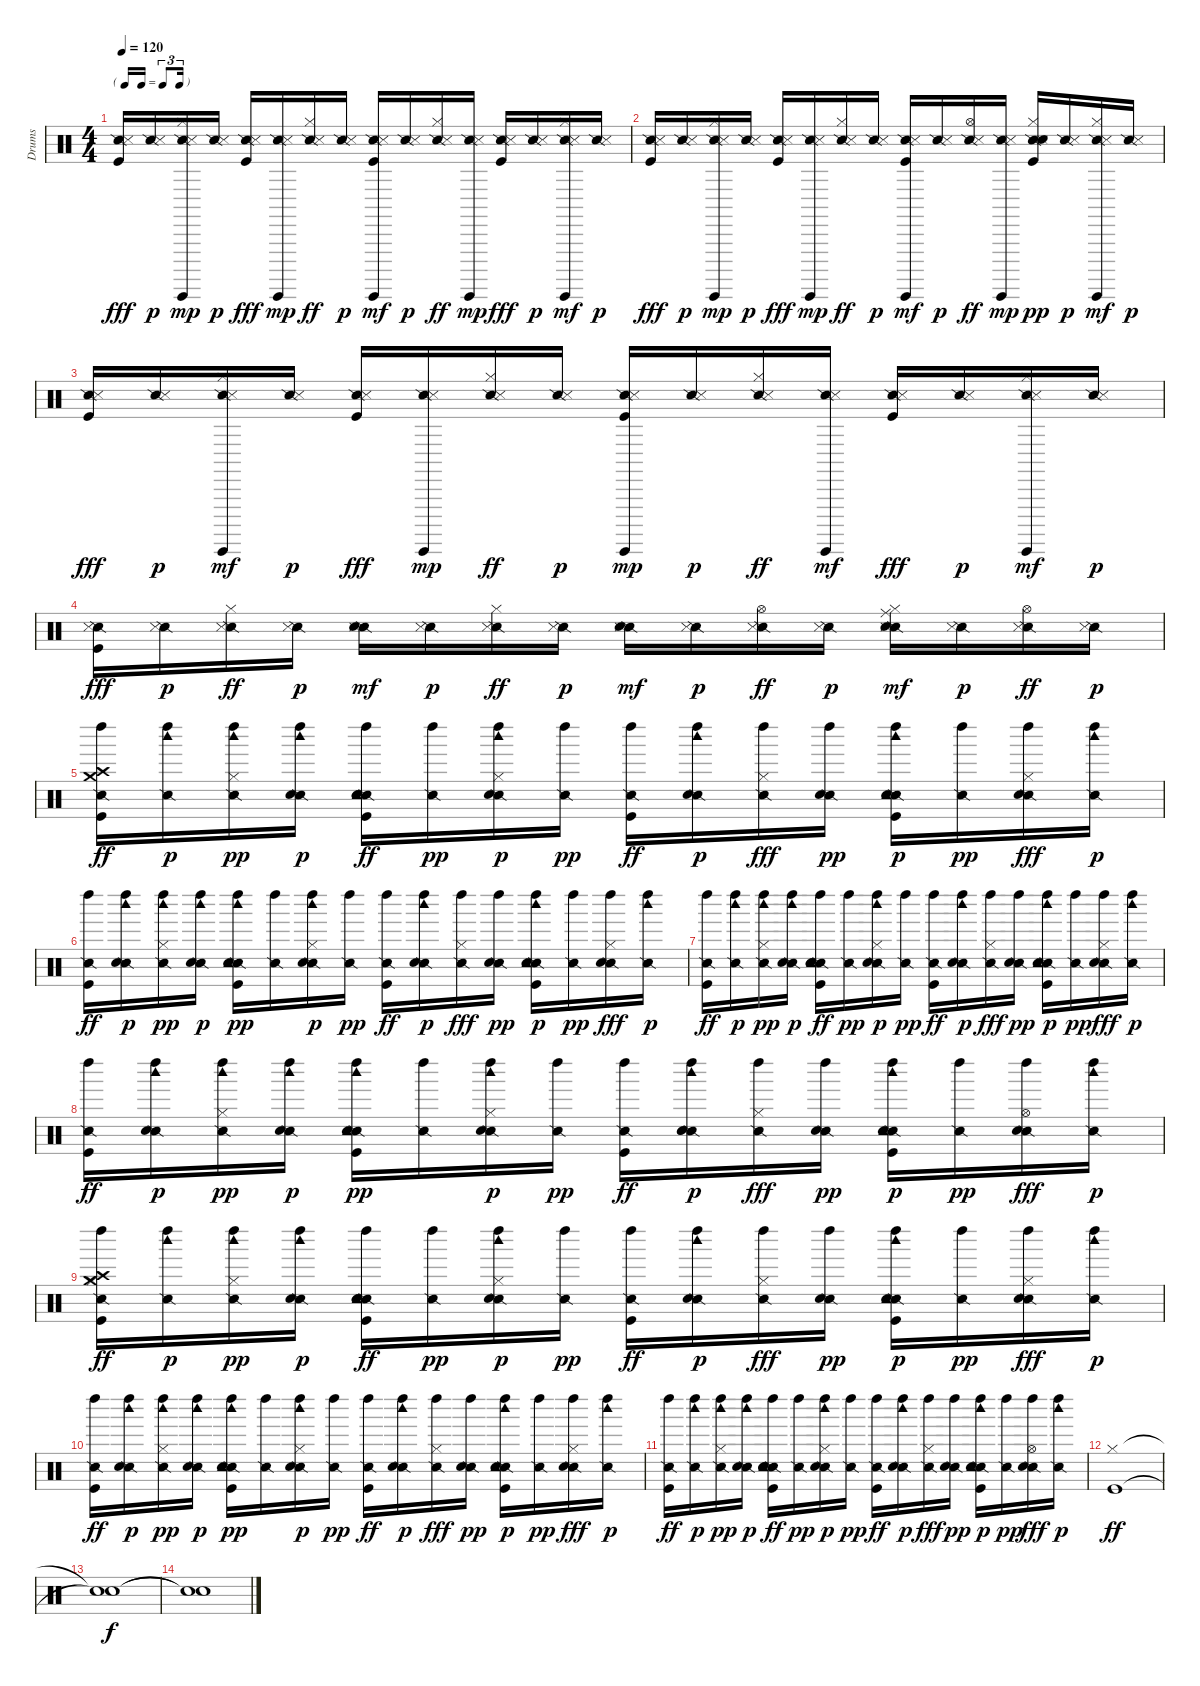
\track ("Drums" "Drums") {instrument percussion}
\staff {score}
\articulation defaults
\ts (4 4)
\tf triplet16th
\tempo 120
\clef neutral
\ks c
("Snare (side stick) 2" "Metronome (hit)" "Kick (hit)").16{dy fff} ("Snare (side stick) 2" "Metronome (hit)").16{dy p} ("Snare (side stick) 2" "Metronome (hit)" "Hi-Hat (closed)" "Guiro (hit)").16{dy mp} ("Snare (side stick) 2" "Metronome (hit)").16{dy p} ("Snare (side stick) 2" "Metronome (hit)" "Kick (hit)").16{dy fff} ("Snare (side stick) 2" "Metronome (hit)" "Guiro (hit)").16{dy mp} ("Snare (side stick) 2" "Metronome (hit)" "Hi-Hat (closed)").16{dy ff} ("Snare (side stick) 2" "Metronome (hit)").16{dy p} ("Snare (side stick) 2" "Metronome (hit)" "Kick (hit)" "Guiro (hit)").16{dy mf} ("Snare (side stick) 2" "Metronome (hit)").16{dy p} ("Snare (side stick) 2" "Metronome (hit)" "Hi-Hat (closed)").16{dy ff} ("Snare (side stick) 2" "Metronome (hit)" "Guiro (hit)").16{dy mp} ("Snare (side stick) 2" "Metronome (hit)" "Kick (hit)").16{dy fff} ("Snare (side stick) 2" "Metronome (hit)").16{dy p} ("Snare (side stick) 2" "Metronome (hit)" "Hi-Hat (closed)" "Guiro (hit)").16{dy mf} ("Snare (side stick) 2" "Metronome (hit)").16{dy p} |
("Snare (side stick) 2" "Metronome (hit)" "Kick (hit)").16{dy fff} ("Snare (side stick) 2" "Metronome (hit)").16{dy p} ("Snare (side stick) 2" "Metronome (hit)" "Hi-Hat (closed)" "Guiro (hit)").16{dy mp} ("Snare (side stick) 2" "Metronome (hit)").16{dy p} ("Snare (side stick) 2" "Metronome (hit)" "Kick (hit)").16{dy fff} ("Snare (side stick) 2" "Metronome (hit)" "Guiro (hit)").16{dy mp} ("Snare (side stick) 2" "Metronome (hit)" "Hi-Hat (closed)").16{dy ff} ("Snare (side stick) 2" "Metronome (hit)").16{dy p} ("Snare (side stick) 2" "Metronome (hit)" "Kick (hit)" "Guiro (hit)").16{dy mf} ("Snare (side stick) 2" "Metronome (hit)").16{dy p} ("Snare (side stick) 2" "Metronome (hit)" "Hi-Hat (open)").16{dy ff} ("Snare (side stick) 2" "Metronome (hit)" "Guiro (hit)").16{dy mp} ("Snare (side stick) 2" "Metronome (hit)" "Kick (hit)" "Electric Snare (hit)" "Hi-Hat (closed)").16{dy pp} ("Snare (side stick) 2" "Metronome (hit)").16{dy p} ("Snare (side stick) 2" "Metronome (hit)" "Hi-Hat (closed)" "Guiro (hit)").16{dy mf} ("Snare (side stick) 2" "Metronome (hit)").16{dy p} |
("Snare (side stick) 2" "Metronome (hit)" "Kick (hit)").16{dy fff} ("Snare (side stick) 2" "Metronome (hit)").16{dy p} ("Snare (side stick) 2" "Metronome (hit)" "Hi-Hat (closed)" "Guiro (hit)").16{dy mf} ("Snare (side stick) 2" "Metronome (hit)").16{dy p} ("Snare (side stick) 2" "Metronome (hit)" "Kick (hit)").16{dy fff} ("Snare (side stick) 2" "Metronome (hit)" "Guiro (hit)").16{dy mp} ("Snare (side stick) 2" "Metronome (hit)" "Hi-Hat (closed)").16{dy ff} ("Snare (side stick) 2" "Metronome (hit)").16{dy p} ("Snare (side stick) 2" "Metronome (hit)" "Kick (hit)" "Guiro (hit)").16{dy mp} ("Snare (side stick) 2" "Metronome (hit)").16{dy p} ("Snare (side stick) 2" "Metronome (hit)" "Hi-Hat (closed)").16{dy ff} ("Snare (side stick) 2" "Metronome (hit)" "Guiro (hit)").16{dy mf} ("Snare (side stick) 2" "Metronome (hit)" "Kick (hit)").16{dy fff} ("Snare (side stick) 2" "Metronome (hit)").16{dy p} ("Snare (side stick) 2" "Metronome (hit)" "Hi-Hat (closed)" "Guiro (hit)").16{dy mf} ("Snare (side stick) 2" "Metronome (hit)").16{dy p} |
("Snare (side stick) 2" "Metronome (hit)" "Kick (hit)").16{dy fff} ("Snare (side stick) 2" "Metronome (hit)").16{dy p} ("Snare (side stick) 2" "Metronome (hit)" "Hi-Hat (closed)").16{dy ff} ("Snare (side stick) 2" "Metronome (hit)").16{dy p} ("Snare (side stick) 2" "Metronome (hit)" "Hand Clap (hit)").16{dy mf} ("Snare (side stick) 2" "Metronome (hit)").16{dy p} ("Snare (side stick) 2" "Metronome (hit)" "Hi-Hat (closed)").16{dy ff} ("Snare (side stick) 2" "Metronome (hit)").16{dy p} ("Snare (side stick) 2" "Metronome (hit)" "Hand Clap (hit)").16{dy mf} ("Snare (side stick) 2" "Metronome (hit)").16{dy p} ("Snare (side stick) 2" "Metronome (hit)" "Hi-Hat (open)").16{dy ff} ("Snare (side stick) 2" "Metronome (hit)").16{dy p} ("Snare (side stick) 2" "Metronome (hit)" "Electric Snare (hit)" "Hi-Hat (closed)" "Ride (middle)").16{dy mf} ("Snare (side stick) 2" "Metronome (hit)").16{dy p} ("Snare (side stick) 2" "Metronome (hit)" "Hi-Hat (open)").16{dy ff} ("Snare (side stick) 2" "Metronome (hit)").16{dy p} |
("Snare (side stick) 2" "Kick (hit)" "Crash high (hit)" "Crash medium (hit)" "Left Maraca (hit)").16{dy ff} ("Snare (side stick) 2" "Left Maraca (hit)" "Woodblock high (hit)").16{dy p} ("Snare (side stick) 2" "Hi-Hat (closed)" "Left Maraca (hit)" "Woodblock high (hit)").16{dy pp} ("Snare (side stick) 2" "Hand Clap (hit)" "Left Maraca (hit)" "Woodblock high (hit)").16{dy p} ("Snare (side stick) 2" "Kick (hit)" "Hand Clap (hit)" "Electric Snare (hit)" "Tambourine (hit)" "Left Maraca (hit)").16{dy ff} ("Snare (side stick) 2" "Left Maraca (hit)").16{dy pp} ("Snare (side stick) 2" "Hand Clap (hit)" "Hi-Hat (closed)" "Left Maraca (hit)" "Woodblock high (hit)").16{dy p} ("Snare (side stick) 2" "Left Maraca (hit)").16{dy pp} ("Snare (side stick) 2" "Kick (hit)" "Left Maraca (hit)").16{dy ff} ("Snare (side stick) 2" "Hand Clap (hit)" "Left Maraca (hit)" "Woodblock high (hit)").16{dy p} ("Snare (side stick) 2" "Hi-Hat (closed)" "Left Maraca (hit)").16{dy fff} ("Snare (side stick) 2" "Hand Clap (hit)" "Left Maraca (hit)").16{dy pp} ("Snare (side stick) 2" "Kick (hit)" "Electric Snare (hit)" "Tambourine (hit)" "Left Maraca (hit)" "Woodblock high (hit)").16{dy p} ("Snare (side stick) 2" "Left Maraca (hit)").16{dy pp} ("Snare (side stick) 2" "Hand Clap (hit)" "Hi-Hat (closed)" "Left Maraca (hit)").16{dy fff} ("Snare (side stick) 2" "Left Maraca (hit)" "Woodblock high (hit)").16{dy p} |
("Snare (side stick) 2" "Kick (hit)" "Left Maraca (hit)").16{dy ff} ("Snare (side stick) 2" "Hand Clap (hit)" "Left Maraca (hit)" "Woodblock high (hit)").16{dy p} ("Snare (side stick) 2" "Hi-Hat (closed)" "Left Maraca (hit)" "Woodblock high (hit)").16{dy pp} ("Snare (side stick) 2" "Hand Clap (hit)" "Left Maraca (hit)" "Woodblock high (hit)").16{dy p} ("Snare (side stick) 2" "Kick (hit)" "Electric Snare (hit)" "Tambourine (hit)" "Left Maraca (hit)" "Woodblock high (hit)").16{dy pp} ("Snare (side stick) 2" "Left Maraca (hit)").16 ("Snare (side stick) 2" "Hand Clap (hit)" "Hi-Hat (closed)" "Left Maraca (hit)" "Woodblock high (hit)").16{dy p} ("Snare (side stick) 2" "Left Maraca (hit)").16{dy pp} ("Snare (side stick) 2" "Kick (hit)" "Left Maraca (hit)").16{dy ff} ("Snare (side stick) 2" "Hand Clap (hit)" "Left Maraca (hit)" "Woodblock high (hit)").16{dy p} ("Snare (side stick) 2" "Hi-Hat (closed)" "Left Maraca (hit)").16{dy fff} ("Snare (side stick) 2" "Hand Clap (hit)" "Left Maraca (hit)").16{dy pp} ("Snare (side stick) 2" "Kick (hit)" "Electric Snare (hit)" "Tambourine (hit)" "Left Maraca (hit)" "Woodblock high (hit)").16{dy p} ("Snare (side stick) 2" "Left Maraca (hit)").16{dy pp} ("Snare (side stick) 2" "Hand Clap (hit)" "Hi-Hat (closed)" "Left Maraca (hit)").16{dy fff} ("Snare (side stick) 2" "Left Maraca (hit)" "Woodblock high (hit)").16{dy p} |
("Snare (side stick) 2" "Kick (hit)" "Left Maraca (hit)").16{dy ff} ("Snare (side stick) 2" "Left Maraca (hit)" "Woodblock high (hit)").16{dy p} ("Snare (side stick) 2" "Hi-Hat (closed)" "Left Maraca (hit)" "Woodblock high (hit)").16{dy pp} ("Snare (side stick) 2" "Hand Clap (hit)" "Left Maraca (hit)" "Woodblock high (hit)").16{dy p} ("Snare (side stick) 2" "Kick (hit)" "Hand Clap (hit)" "Electric Snare (hit)" "Tambourine (hit)" "Left Maraca (hit)").16{dy ff} ("Snare (side stick) 2" "Left Maraca (hit)").16{dy pp} ("Snare (side stick) 2" "Hand Clap (hit)" "Hi-Hat (closed)" "Left Maraca (hit)" "Woodblock high (hit)").16{dy p} ("Snare (side stick) 2" "Left Maraca (hit)").16{dy pp} ("Snare (side stick) 2" "Kick (hit)" "Left Maraca (hit)").16{dy ff} ("Snare (side stick) 2" "Hand Clap (hit)" "Left Maraca (hit)" "Woodblock high (hit)").16{dy p} ("Snare (side stick) 2" "Hi-Hat (closed)" "Left Maraca (hit)").16{dy fff} ("Snare (side stick) 2" "Hand Clap (hit)" "Left Maraca (hit)").16{dy pp} ("Snare (side stick) 2" "Kick (hit)" "Electric Snare (hit)" "Tambourine (hit)" "Left Maraca (hit)" "Woodblock high (hit)").16{dy p} ("Snare (side stick) 2" "Left Maraca (hit)").16{dy pp} ("Snare (side stick) 2" "Hand Clap (hit)" "Hi-Hat (closed)" "Left Maraca (hit)").16{dy fff} ("Snare (side stick) 2" "Left Maraca (hit)" "Woodblock high (hit)").16{dy p} |
("Snare (side stick) 2" "Kick (hit)" "Left Maraca (hit)").16{dy ff} ("Snare (side stick) 2" "Hand Clap (hit)" "Left Maraca (hit)" "Woodblock high (hit)").16{dy p} ("Snare (side stick) 2" "Hi-Hat (closed)" "Left Maraca (hit)" "Woodblock high (hit)").16{dy pp} ("Snare (side stick) 2" "Hand Clap (hit)" "Left Maraca (hit)" "Woodblock high (hit)").16{dy p} ("Snare (side stick) 2" "Kick (hit)" "Electric Snare (hit)" "Tambourine (hit)" "Left Maraca (hit)" "Woodblock high (hit)").16{dy pp} ("Snare (side stick) 2" "Left Maraca (hit)").16 ("Snare (side stick) 2" "Hand Clap (hit)" "Hi-Hat (closed)" "Left Maraca (hit)" "Woodblock high (hit)").16{dy p} ("Snare (side stick) 2" "Left Maraca (hit)").16{dy pp} ("Snare (side stick) 2" "Kick (hit)" "Left Maraca (hit)").16{dy ff} ("Snare (side stick) 2" "Hand Clap (hit)" "Electric Snare (hit)" "Left Maraca (hit)" "Woodblock high (hit)").16{dy p} ("Snare (side stick) 2" "Hi-Hat (closed)" "Left Maraca (hit)").16{dy fff} ("Snare (side stick) 2" "Hand Clap (hit)" "Left Maraca (hit)").16{dy pp} ("Snare (side stick) 2" "Kick (hit)" "Electric Snare (hit)" "Tambourine (hit)" "Left Maraca (hit)" "Woodblock high (hit)").16{dy p} ("Snare (side stick) 2" "Left Maraca (hit)").16{dy pp} ("Snare (side stick) 2" "Hand Clap (hit)" "Hi-Hat (open)" "Left Maraca (hit)").16{dy fff} ("Snare (side stick) 2" "Left Maraca (hit)" "Woodblock high (hit)").16{dy p} |
("Snare (side stick) 2" "Kick (hit)" "Hi-Hat (closed)" "Crash high (hit)" "Crash medium (hit)" "Left Maraca (hit)").16{dy ff} ("Snare (side stick) 2" "Left Maraca (hit)" "Woodblock high (hit)").16{dy p} ("Snare (side stick) 2" "Hi-Hat (closed)" "Left Maraca (hit)" "Woodblock high (hit)").16{dy pp} ("Snare (side stick) 2" "Hand Clap (hit)" "Left Maraca (hit)" "Woodblock high (hit)").16{dy p} ("Snare (side stick) 2" "Kick (hit)" "Hand Clap (hit)" "Electric Snare (hit)" "Tambourine (hit)" "Left Maraca (hit)").16{dy ff} ("Snare (side stick) 2" "Left Maraca (hit)").16{dy pp} ("Snare (side stick) 2" "Hand Clap (hit)" "Hi-Hat (closed)" "Left Maraca (hit)" "Woodblock high (hit)").16{dy p} ("Snare (side stick) 2" "Left Maraca (hit)").16{dy pp} ("Snare (side stick) 2" "Kick (hit)" "Left Maraca (hit)").16{dy ff} ("Snare (side stick) 2" "Hand Clap (hit)" "Left Maraca (hit)" "Woodblock high (hit)").16{dy p} ("Snare (side stick) 2" "Hi-Hat (closed)" "Left Maraca (hit)").16{dy fff} ("Snare (side stick) 2" "Hand Clap (hit)" "Left Maraca (hit)").16{dy pp} ("Snare (side stick) 2" "Kick (hit)" "Electric Snare (hit)" "Tambourine (hit)" "Left Maraca (hit)" "Woodblock high (hit)").16{dy p} ("Snare (side stick) 2" "Left Maraca (hit)").16{dy pp} ("Snare (side stick) 2" "Hand Clap (hit)" "Hi-Hat (closed)" "Left Maraca (hit)").16{dy fff} ("Snare (side stick) 2" "Left Maraca (hit)" "Woodblock high (hit)").16{dy p} |
("Snare (side stick) 2" "Kick (hit)" "Left Maraca (hit)").16{dy ff} ("Snare (side stick) 2" "Hand Clap (hit)" "Left Maraca (hit)" "Woodblock high (hit)").16{dy p} ("Snare (side stick) 2" "Hi-Hat (closed)" "Left Maraca (hit)" "Woodblock high (hit)").16{dy pp} ("Snare (side stick) 2" "Hand Clap (hit)" "Left Maraca (hit)" "Woodblock high (hit)").16{dy p} ("Snare (side stick) 2" "Kick (hit)" "Electric Snare (hit)" "Tambourine (hit)" "Left Maraca (hit)" "Woodblock high (hit)").16{dy pp} ("Snare (side stick) 2" "Left Maraca (hit)").16 ("Snare (side stick) 2" "Hand Clap (hit)" "Hi-Hat (closed)" "Left Maraca (hit)" "Woodblock high (hit)").16{dy p} ("Snare (side stick) 2" "Left Maraca (hit)").16{dy pp} ("Snare (side stick) 2" "Kick (hit)" "Left Maraca (hit)").16{dy ff} ("Snare (side stick) 2" "Hand Clap (hit)" "Left Maraca (hit)" "Woodblock high (hit)").16{dy p} ("Snare (side stick) 2" "Hi-Hat (closed)" "Left Maraca (hit)").16{dy fff} ("Snare (side stick) 2" "Hand Clap (hit)" "Left Maraca (hit)").16{dy pp} ("Snare (side stick) 2" "Kick (hit)" "Electric Snare (hit)" "Tambourine (hit)" "Left Maraca (hit)" "Woodblock high (hit)").16{dy p} ("Snare (side stick) 2" "Left Maraca (hit)").16{dy pp} ("Snare (side stick) 2" "Hand Clap (hit)" "Hi-Hat (closed)" "Left Maraca (hit)").16{dy fff} ("Snare (side stick) 2" "Left Maraca (hit)" "Woodblock high (hit)").16{dy p} |
("Snare (side stick) 2" "Kick (hit)" "Left Maraca (hit)").16{dy ff} ("Snare (side stick) 2" "Left Maraca (hit)" "Woodblock high (hit)").16{dy p} ("Snare (side stick) 2" "Hi-Hat (closed)" "Left Maraca (hit)" "Woodblock high (hit)").16{dy pp} ("Snare (side stick) 2" "Hand Clap (hit)" "Left Maraca (hit)" "Woodblock high (hit)").16{dy p} ("Snare (side stick) 2" "Kick (hit)" "Hand Clap (hit)" "Electric Snare (hit)" "Tambourine (hit)" "Left Maraca (hit)").16{dy ff} ("Snare (side stick) 2" "Left Maraca (hit)").16{dy pp} ("Snare (side stick) 2" "Hand Clap (hit)" "Hi-Hat (closed)" "Left Maraca (hit)" "Woodblock high (hit)").16{dy p} ("Snare (side stick) 2" "Left Maraca (hit)").16{dy pp} ("Snare (side stick) 2" "Kick (hit)" "Left Maraca (hit)").16{dy ff} ("Snare (side stick) 2" "Hand Clap (hit)" "Left Maraca (hit)" "Woodblock high (hit)").16{dy p} ("Snare (side stick) 2" "Hi-Hat (closed)" "Left Maraca (hit)").16{dy fff} ("Snare (side stick) 2" "Hand Clap (hit)" "Left Maraca (hit)").16{dy pp} ("Snare (side stick) 2" "Kick (hit)" "Electric Snare (hit)" "Tambourine (hit)" "Left Maraca (hit)" "Woodblock high (hit)").16{dy p} ("Snare (side stick) 2" "Left Maraca (hit)").16{dy pp} ("Snare (side stick) 2" "Hand Clap (hit)" "Hi-Hat (open)" "Left Maraca (hit)").16{dy fff} ("Snare (side stick) 2" "Left Maraca (hit)" "Woodblock high (hit)").16{dy p} |
("Kick (hit)" "Hi-Hat (closed)").1{dy ff} |
("Snare (hit)"{t} "Snare (hit)"{t}).1{dy f} |
("Snare (hit)"{t} "Snare (hit)"{t}).1
